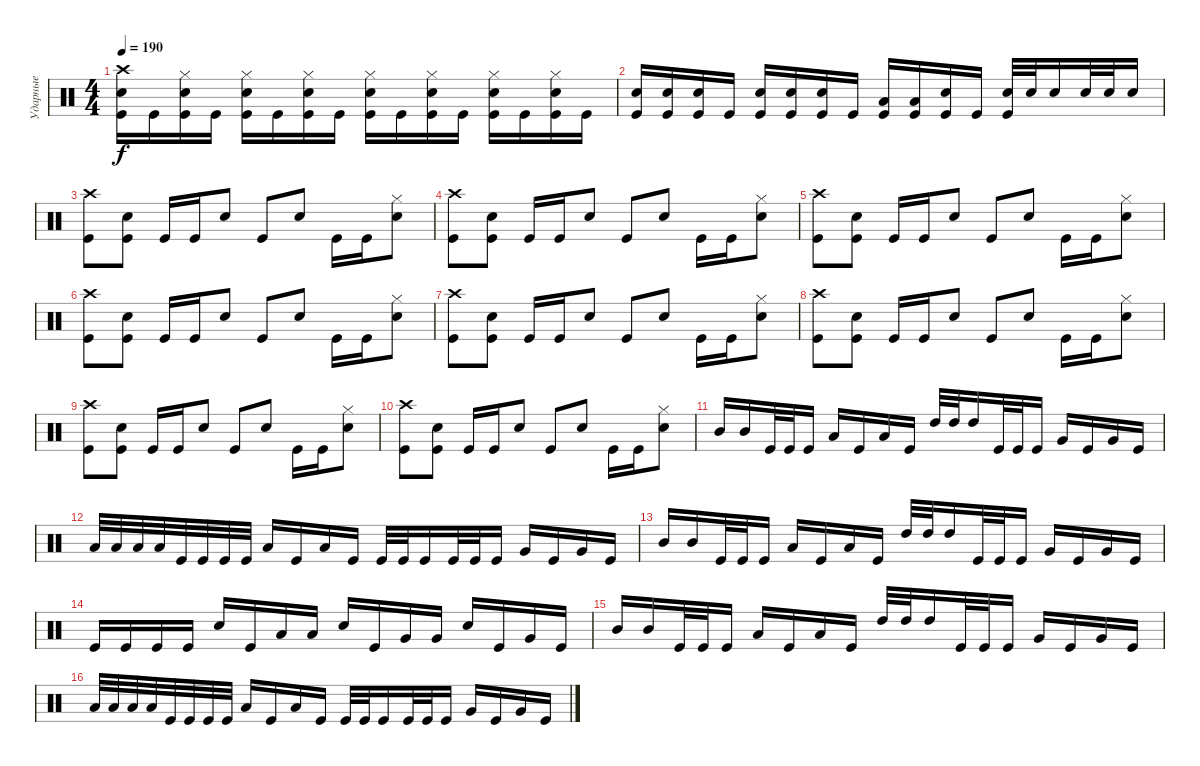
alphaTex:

\track ("Ударные" "Ударные") {instrument percussion}
\staff {score}
\articulation defaults
\ts (4 4)
\tempo 190
\clef neutral
\ks c
("Crash high (hit)" "Electric Snare (hit)" "Kick (hit)").16{dy f} "Kick (hit)".16 ("Hi-Hat (closed)" "Electric Snare (hit)" "Kick (hit)").16 "Kick (hit)".16 ("Hi-Hat (closed)" "Electric Snare (hit)" "Kick (hit)").16 "Kick (hit)".16 ("Hi-Hat (closed)" "Electric Snare (hit)" "Kick (hit)").16 "Kick (hit)".16 ("Hi-Hat (closed)" "Electric Snare (hit)" "Kick (hit)").16 "Kick (hit)".16 ("Hi-Hat (closed)" "Electric Snare (hit)" "Kick (hit)").16 "Kick (hit)".16 ("Hi-Hat (closed)" "Electric Snare (hit)" "Kick (hit)").16 "Kick (hit)".16 ("Hi-Hat (closed)" "Electric Snare (hit)" "Kick (hit)").16 "Kick (hit)".16 |
("Electric Snare (hit)" "Kick (hit)").16 ("Electric Snare (hit)" "Kick (hit)").16 ("Electric Snare (hit)" "Kick (hit)").16 "Kick (hit)".16 ("Electric Snare (hit)" "Kick (hit)").16 ("Electric Snare (hit)" "Kick (hit)").16 ("Electric Snare (hit)" "Kick (hit)").16 "Kick (hit)".16 ("Low Tom (hit)" "Kick (hit)").16 ("Low Tom (hit)" "Kick (hit)").16 ("Electric Snare (hit)" "Kick (hit)").16 "Kick (hit)".16 ("Electric Snare (hit)" "Kick (hit)").32 "Electric Snare (hit)".32 "Electric Snare (hit)".16 "Electric Snare (hit)".32 "Electric Snare (hit)".32 "Electric Snare (hit)".16 |
("Crash high (hit)" "Kick (hit)").8 ("Electric Snare (hit)" "Kick (hit)").8 "Kick (hit)".16 "Kick (hit)".16 "Electric Snare (hit)".8 "Kick (hit)".8 "Electric Snare (hit)".8 "Kick (hit)".16 "Kick (hit)".16 ("Hi-Hat (closed)" "Electric Snare (hit)").8 |
("Crash high (hit)" "Kick (hit)").8 ("Electric Snare (hit)" "Kick (hit)").8 "Kick (hit)".16 "Kick (hit)".16 "Electric Snare (hit)".8 "Kick (hit)".8 "Electric Snare (hit)".8 "Kick (hit)".16 "Kick (hit)".16 ("Hi-Hat (closed)" "Electric Snare (hit)").8 |
("Crash high (hit)" "Kick (hit)").8 ("Electric Snare (hit)" "Kick (hit)").8 "Kick (hit)".16 "Kick (hit)".16 "Electric Snare (hit)".8 "Kick (hit)".8 "Electric Snare (hit)".8 "Kick (hit)".16 "Kick (hit)".16 ("Hi-Hat (closed)" "Electric Snare (hit)").8 |
("Crash high (hit)" "Kick (hit)").8 ("Electric Snare (hit)" "Kick (hit)").8 "Kick (hit)".16 "Kick (hit)".16 "Electric Snare (hit)".8 "Kick (hit)".8 "Electric Snare (hit)".8 "Kick (hit)".16 "Kick (hit)".16 ("Hi-Hat (closed)" "Electric Snare (hit)").8 |
("Crash high (hit)" "Kick (hit)").8 ("Electric Snare (hit)" "Kick (hit)").8 "Kick (hit)".16 "Kick (hit)".16 "Electric Snare (hit)".8 "Kick (hit)".8 "Electric Snare (hit)".8 "Kick (hit)".16 "Kick (hit)".16 ("Hi-Hat (closed)" "Electric Snare (hit)").8 |
("Crash high (hit)" "Kick (hit)").8 ("Electric Snare (hit)" "Kick (hit)").8 "Kick (hit)".16 "Kick (hit)".16 "Electric Snare (hit)".8 "Kick (hit)".8 "Electric Snare (hit)".8 "Kick (hit)".16 "Kick (hit)".16 ("Hi-Hat (closed)" "Electric Snare (hit)").8 |
("Crash high (hit)" "Kick (hit)").8 ("Electric Snare (hit)" "Kick (hit)").8 "Kick (hit)".16 "Kick (hit)".16 "Electric Snare (hit)".8 "Kick (hit)".8 "Electric Snare (hit)".8 "Kick (hit)".16 "Kick (hit)".16 ("Hi-Hat (closed)" "Electric Snare (hit)").8 |
("Crash high (hit)" "Kick (hit)").8 ("Electric Snare (hit)" "Kick (hit)").8 "Kick (hit)".16 "Kick (hit)".16 "Electric Snare (hit)".8 "Kick (hit)".8 "Electric Snare (hit)".8 "Kick (hit)".16 "Kick (hit)".16 ("Hi-Hat (closed)" "Electric Snare (hit)").8 |
"Mid Tom (hit)".16 "Mid Tom (hit)".16 "Kick (hit)".32 "Kick (hit)".32 "Kick (hit)".16 "Low Tom (hit)".16 "Kick (hit)".16 "Low Tom (hit)".16 "Kick (hit)".16 "High Tom (hit)".32 "High Tom (hit)".32 "High Tom (hit)".16 "Kick (hit)".32 "Kick (hit)".32 "Kick (hit)".16 "Very Low Tom (hit)".16 "Kick (hit)".16 "Very Low Tom (hit)".16 "Kick (hit)".16 |
"Low Tom (hit)".32 "Low Tom (hit)".32 "Low Tom (hit)".32 "Low Tom (hit)".32 "Kick (hit)".32 "Kick (hit)".32 "Kick (hit)".32 "Kick (hit)".32 "Low Tom (hit)".16 "Kick (hit)".16 "Low Tom (hit)".16 "Kick (hit)".16 "Kick (hit)".32 "Kick (hit)".32 "Kick (hit)".16 "Kick (hit)".32 "Kick (hit)".32 "Kick (hit)".16 "Very Low Tom (hit)".16 "Kick (hit)".16 "Very Low Tom (hit)".16 "Kick (hit)".16 |
"Mid Tom (hit)".16 "Mid Tom (hit)".16 "Kick (hit)".32 "Kick (hit)".32 "Kick (hit)".16 "Low Tom (hit)".16 "Kick (hit)".16 "Low Tom (hit)".16 "Kick (hit)".16 "High Tom (hit)".32 "High Tom (hit)".32 "High Tom (hit)".16 "Kick (hit)".32 "Kick (hit)".32 "Kick (hit)".16 "Very Low Tom (hit)".16 "Kick (hit)".16 "Very Low Tom (hit)".16 "Kick (hit)".16 |
"Kick (hit)".16 "Kick (hit)".16 "Kick (hit)".16 "Kick (hit)".16 "Electric Snare (hit)".16 "Kick (hit)".16 "Low Tom (hit)".16 "Low Tom (hit)".16 "Electric Snare (hit)".16 "Kick (hit)".16 "Very Low Tom (hit)".16 "Very Low Tom (hit)".16 "Electric Snare (hit)".16 "Kick (hit)".16 "Very Low Tom (hit)".16 "Kick (hit)".16 |
"Mid Tom (hit)".16 "Mid Tom (hit)".16 "Kick (hit)".32 "Kick (hit)".32 "Kick (hit)".16 "Low Tom (hit)".16 "Kick (hit)".16 "Low Tom (hit)".16 "Kick (hit)".16 "High Tom (hit)".32 "High Tom (hit)".32 "High Tom (hit)".16 "Kick (hit)".32 "Kick (hit)".32 "Kick (hit)".16 "Very Low Tom (hit)".16 "Kick (hit)".16 "Very Low Tom (hit)".16 "Kick (hit)".16 |
"Low Tom (hit)".32 "Low Tom (hit)".32 "Low Tom (hit)".32 "Low Tom (hit)".32 "Kick (hit)".32 "Kick (hit)".32 "Kick (hit)".32 "Kick (hit)".32 "Low Tom (hit)".16 "Kick (hit)".16 "Low Tom (hit)".16 "Kick (hit)".16 "Kick (hit)".32 "Kick (hit)".32 "Kick (hit)".16 "Kick (hit)".32 "Kick (hit)".32 "Kick (hit)".16 "Very Low Tom (hit)".16 "Kick (hit)".16 "Very Low Tom (hit)".16 "Kick (hit)".16
